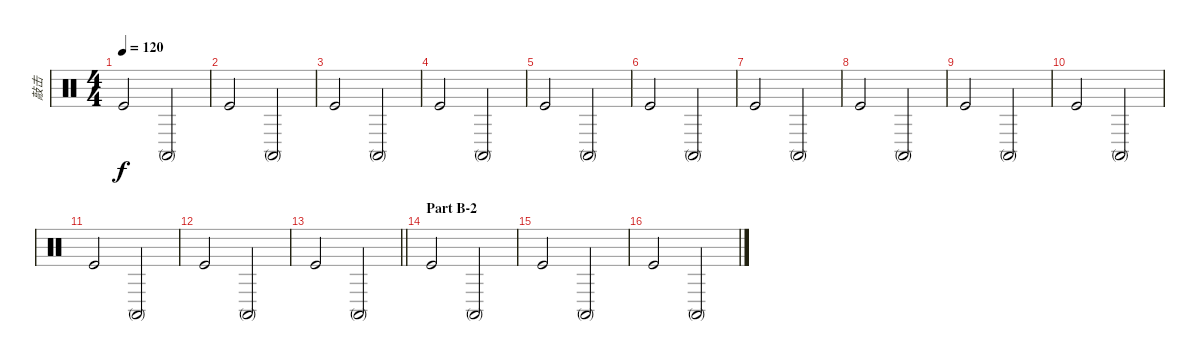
\track ("敲击" "敲击") {instrument percussion}
\staff {score}
\articulation defaults
\ts (4 4)
\tempo 120
\clef neutral
\ks c "Kick (hit)".2{dy f} "Conga high (mute)".2
|
"Kick (hit)".2 "Conga high (mute)".2 |
"Kick (hit)".2 "Conga high (mute)".2 |
"Kick (hit)".2 "Conga high (mute)".2 |
"Kick (hit)".2 "Conga high (mute)".2 |
"Kick (hit)".2 "Conga high (mute)".2 |
"Kick (hit)".2 "Conga high (mute)".2 |
"Kick (hit)".2 "Conga high (mute)".2 |
"Kick (hit)".2 "Conga high (mute)".2 |
"Kick (hit)".2 "Conga high (mute)".2 |
"Kick (hit)".2 "Conga high (mute)".2 |
"Kick (hit)".2 "Conga high (mute)".2 |
\barLineRight lightlight "Kick (hit)".2 "Conga high (mute)".2
|
\section ("" "Part B-2")
"Kick (hit)".2 "Conga high (mute)".2 |
"Kick (hit)".2 "Conga high (mute)".2 |
"Kick (hit)".2 "Conga high (mute)".2
